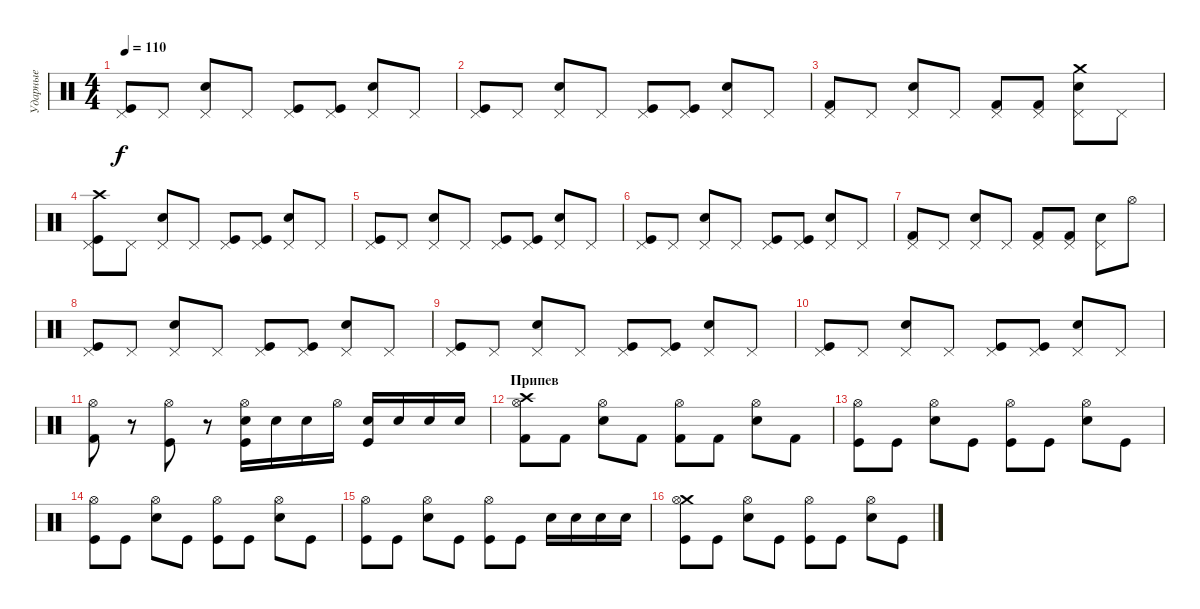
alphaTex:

\track ("Ударные" "Ударные") {instrument percussion}
\staff {score}
\articulation defaults
\ts (4 4)
\tempo 110
\clef neutral
\ks c
("Pedal Hi-Hat (hit)" "Kick (hit)").8{dy f} "Pedal Hi-Hat (hit)".8 ("Pedal Hi-Hat (hit)" "Electric Snare (hit)").8 "Pedal Hi-Hat (hit)".8 ("Pedal Hi-Hat (hit)" "Kick (hit)").8 ("Pedal Hi-Hat (hit)" "Kick (hit)").8 ("Pedal Hi-Hat (hit)" "Electric Snare (hit)").8 "Pedal Hi-Hat (hit)".8 |
("Pedal Hi-Hat (hit)" "Kick (hit)").8 "Pedal Hi-Hat (hit)".8 ("Pedal Hi-Hat (hit)" "Electric Snare (hit)").8 "Pedal Hi-Hat (hit)".8 ("Pedal Hi-Hat (hit)" "Kick (hit)").8 ("Pedal Hi-Hat (hit)" "Kick (hit)").8 ("Pedal Hi-Hat (hit)" "Electric Snare (hit)").8 "Pedal Hi-Hat (hit)".8 |
("Pedal Hi-Hat (hit)" "Kick (hit) 2").8 "Pedal Hi-Hat (hit)".8 ("Pedal Hi-Hat (hit)" "Electric Snare (hit)").8 "Pedal Hi-Hat (hit)".8 ("Pedal Hi-Hat (hit)" "Kick (hit) 2").8 ("Pedal Hi-Hat (hit)" "Kick (hit) 2").8 ("Crash medium (hit)" "Pedal Hi-Hat (hit)" "Electric Snare (hit)").8 "Pedal Hi-Hat (hit)".8 |
("Crash high (hit)" "Pedal Hi-Hat (hit)" "Kick (hit)").8 "Pedal Hi-Hat (hit)".8 ("Pedal Hi-Hat (hit)" "Electric Snare (hit)").8 "Pedal Hi-Hat (hit)".8 ("Pedal Hi-Hat (hit)" "Kick (hit)").8 ("Pedal Hi-Hat (hit)" "Kick (hit)").8 ("Pedal Hi-Hat (hit)" "Electric Snare (hit)").8 "Pedal Hi-Hat (hit)".8 |
("Pedal Hi-Hat (hit)" "Kick (hit)").8 "Pedal Hi-Hat (hit)".8 ("Pedal Hi-Hat (hit)" "Electric Snare (hit)").8 "Pedal Hi-Hat (hit)".8 ("Pedal Hi-Hat (hit)" "Kick (hit)").8 ("Pedal Hi-Hat (hit)" "Kick (hit)").8 ("Pedal Hi-Hat (hit)" "Electric Snare (hit)").8 "Pedal Hi-Hat (hit)".8 |
("Pedal Hi-Hat (hit)" "Kick (hit)").8 "Pedal Hi-Hat (hit)".8 ("Pedal Hi-Hat (hit)" "Electric Snare (hit)").8 "Pedal Hi-Hat (hit)".8 ("Pedal Hi-Hat (hit)" "Kick (hit)").8 ("Pedal Hi-Hat (hit)" "Kick (hit)").8 ("Pedal Hi-Hat (hit)" "Electric Snare (hit)").8 "Pedal Hi-Hat (hit)".8 |
("Pedal Hi-Hat (hit)" "Kick (hit) 2").8 "Pedal Hi-Hat (hit)".8 ("Pedal Hi-Hat (hit)" "Electric Snare (hit)").8 "Pedal Hi-Hat (hit)".8 ("Pedal Hi-Hat (hit)" "Kick (hit) 2").8 ("Pedal Hi-Hat (hit)" "Kick (hit) 2").8 ("Pedal Hi-Hat (hit)" "Electric Snare (hit)").8 "Hi-Hat (open)".8 |
("Pedal Hi-Hat (hit)" "Kick (hit)").8 "Pedal Hi-Hat (hit)".8 ("Pedal Hi-Hat (hit)" "Electric Snare (hit)").8 "Pedal Hi-Hat (hit)".8 ("Pedal Hi-Hat (hit)" "Kick (hit)").8 ("Pedal Hi-Hat (hit)" "Kick (hit)").8 ("Pedal Hi-Hat (hit)" "Electric Snare (hit)").8 "Pedal Hi-Hat (hit)".8 |
("Pedal Hi-Hat (hit)" "Kick (hit)").8 "Pedal Hi-Hat (hit)".8 ("Pedal Hi-Hat (hit)" "Electric Snare (hit)").8 "Pedal Hi-Hat (hit)".8 ("Pedal Hi-Hat (hit)" "Kick (hit)").8 ("Pedal Hi-Hat (hit)" "Kick (hit)").8 ("Pedal Hi-Hat (hit)" "Electric Snare (hit)").8 "Pedal Hi-Hat (hit)".8 |
("Pedal Hi-Hat (hit)" "Kick (hit)").8 "Pedal Hi-Hat (hit)".8 ("Pedal Hi-Hat (hit)" "Electric Snare (hit)").8 "Pedal Hi-Hat (hit)".8 ("Pedal Hi-Hat (hit)" "Kick (hit)").8 ("Pedal Hi-Hat (hit)" "Kick (hit)").8 ("Pedal Hi-Hat (hit)" "Electric Snare (hit)").8 "Pedal Hi-Hat (hit)".8 |
("Hi-Hat (open)" "Kick (hit) 2").8 r.8 ("Hi-Hat (open)" "Kick (hit)").8 r.8 ("Hi-Hat (open)" "Electric Snare (hit)" "Kick (hit)").16 "Electric Snare (hit)".16 "Electric Snare (hit)".16 "Hi-Hat (open)".16 ("Electric Snare (hit)" "Kick (hit)").16 "Electric Snare (hit)".16 "Electric Snare (hit)".16 "Electric Snare (hit)".16 |
\section ("" "Припев")
("Crash high (hit)" "Hi-Hat (open)" "Kick (hit) 2").8 "Kick (hit) 2".8 ("Hi-Hat (open)" "Electric Snare (hit)").8 "Kick (hit) 2".8 ("Hi-Hat (open)" "Kick (hit) 2").8 "Kick (hit) 2".8 ("Hi-Hat (open)" "Electric Snare (hit)").8 "Kick (hit) 2".8 |
("Hi-Hat (open)" "Kick (hit)").8 "Kick (hit)".8 ("Hi-Hat (open)" "Electric Snare (hit)").8 "Kick (hit)".8 ("Hi-Hat (open)" "Kick (hit)").8 "Kick (hit)".8 ("Hi-Hat (open)" "Electric Snare (hit)").8 "Kick (hit)".8 |
("Hi-Hat (open)" "Kick (hit)").8 "Kick (hit)".8 ("Hi-Hat (open)" "Electric Snare (hit)").8 "Kick (hit)".8 ("Hi-Hat (open)" "Kick (hit)").8 "Kick (hit)".8 ("Hi-Hat (open)" "Electric Snare (hit)").8 "Kick (hit)".8 |
("Hi-Hat (open)" "Kick (hit)").8 "Kick (hit)".8 ("Hi-Hat (open)" "Electric Snare (hit)").8 "Kick (hit)".8 ("Hi-Hat (open)" "Kick (hit)").8 "Kick (hit)".8 "Electric Snare (hit)".16 "Electric Snare (hit)".16 "Electric Snare (hit)".16 "Electric Snare (hit)".16 |
("Crash medium (hit)" "Hi-Hat (open)" "Kick (hit)").8 "Kick (hit)".8 ("Hi-Hat (open)" "Electric Snare (hit)").8 "Kick (hit)".8 ("Hi-Hat (open)" "Kick (hit)").8 "Kick (hit)".8 ("Hi-Hat (open)" "Electric Snare (hit)").8 "Kick (hit)".8
